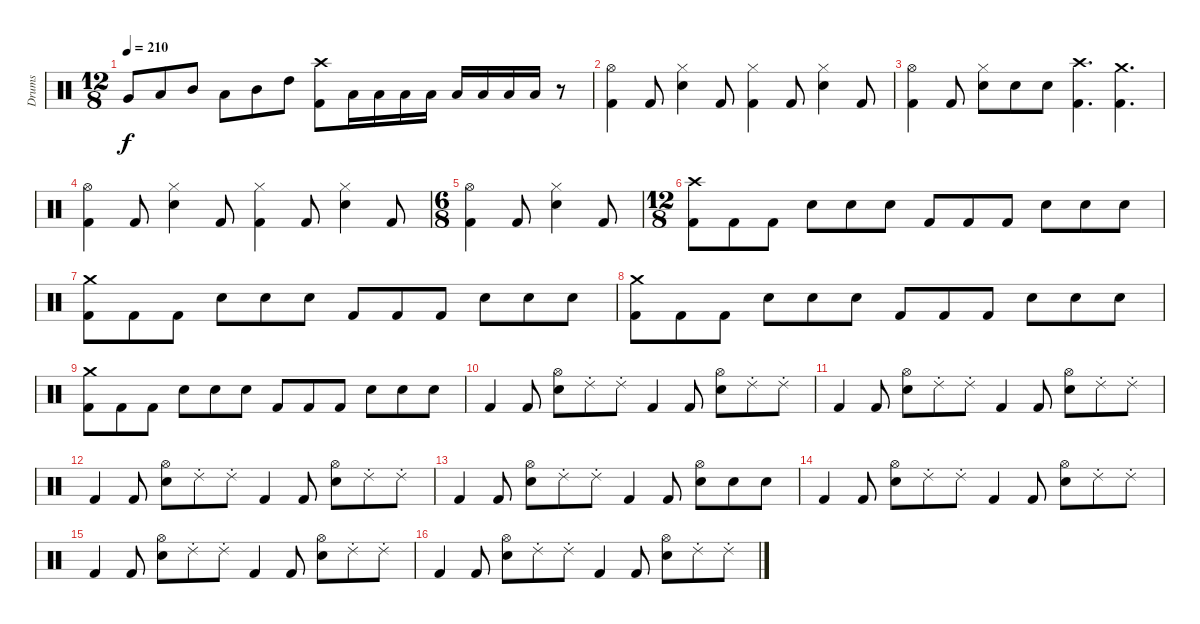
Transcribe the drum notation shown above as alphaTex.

\track ("Drums" "Drums") {instrument percussion}
\staff {score}
\articulation defaults
\ts (12 8)
\tempo 210
\clef neutral
\ks c "Very Low Tom (hit)".8{dy f} "Low Tom (hit)".8 "Mid Tom (hit)".8 "Low Tom (hit)".8 "Mid Tom (hit)".8 "High Tom (hit)".8
("Kick (hit) 2" "Crash high (hit)").8 "Low Tom (hit)".16 "Low Tom (hit)".16 "Low Tom (hit)".16 "Low Tom (hit)".16 "Low Tom (hit)".16 "Low Tom (hit)".16 "Low Tom (hit)".16 "Low Tom (hit)".16 r.8 |
("Kick (hit) 2" "Hi-Hat (open)").4 "Kick (hit) 2".8 ("Snare (hit) 2" "Hi-Hat (closed)").4 "Kick (hit) 2".8 ("Kick (hit) 2" "Hi-Hat (closed)").4 "Kick (hit) 2".8 ("Snare (hit) 2" "Hi-Hat (closed)").4 "Kick (hit) 2".8 |
("Kick (hit) 2" "Hi-Hat (open)").4 "Kick (hit) 2".8 ("Snare (hit) 2" "Hi-Hat (closed)").8 "Snare (hit) 2".8 "Snare (hit) 2".8 ("Kick (hit) 2" "Crash high (hit)").4{d} ("Kick (hit) 2" "Crash medium (hit)").4{d} |
("Kick (hit) 2" "Hi-Hat (open)").4 "Kick (hit) 2".8 ("Snare (hit) 2" "Hi-Hat (closed)").4 "Kick (hit) 2".8 ("Kick (hit) 2" "Hi-Hat (closed)").4 "Kick (hit) 2".8 ("Snare (hit) 2" "Hi-Hat (closed)").4 "Kick (hit) 2".8 |
\ts (6 8)
("Kick (hit) 2" "Hi-Hat (open)").4 "Kick (hit) 2".8 ("Snare (hit) 2" "Hi-Hat (closed)").4 "Kick (hit) 2".8 |
\ts (12 8)
("Kick (hit) 2" "Crash high (hit)").8 "Kick (hit) 2".8 "Kick (hit) 2".8 "Snare (hit) 2".8 "Snare (hit) 2".8 "Snare (hit) 2".8 "Kick (hit) 2".8 "Kick (hit) 2".8 "Kick (hit) 2".8 "Snare (hit) 2".8 "Snare (hit) 2".8 "Snare (hit) 2".8 |
("Kick (hit) 2" "Crash medium (hit)").8 "Kick (hit) 2".8 "Kick (hit) 2".8 "Snare (hit) 2".8 "Snare (hit) 2".8 "Snare (hit) 2".8 "Kick (hit) 2".8 "Kick (hit) 2".8 "Kick (hit) 2".8 "Snare (hit) 2".8 "Snare (hit) 2".8 "Snare (hit) 2".8 |
("Kick (hit) 2" "Crash medium (hit)").8 "Kick (hit) 2".8 "Kick (hit) 2".8 "Snare (hit) 2".8 "Snare (hit) 2".8 "Snare (hit) 2".8 "Kick (hit) 2".8 "Kick (hit) 2".8 "Kick (hit) 2".8 "Snare (hit) 2".8 "Snare (hit) 2".8 "Snare (hit) 2".8 |
("Kick (hit) 2" "Crash medium (hit)").8 "Kick (hit) 2".8 "Kick (hit) 2".8 "Snare (hit) 2".8 "Snare (hit) 2".8 "Snare (hit) 2".8 "Kick (hit) 2".8 "Kick (hit) 2".8 "Kick (hit) 2".8 "Snare (hit) 2".8 "Snare (hit) 2".8 "Snare (hit) 2".8 |
"Kick (hit) 2".4 "Kick (hit) 2".8 ("Snare (hit) 2" "Hi-Hat (open)").8 "Ride (choke) 2".8 "Ride (choke) 2".8 "Kick (hit) 2".4 "Kick (hit) 2".8 ("Snare (hit) 2" "Hi-Hat (open)").8 "Ride (choke) 2".8 "Ride (choke) 2".8 |
"Kick (hit) 2".4 "Kick (hit) 2".8 ("Snare (hit) 2" "Hi-Hat (open)").8 "Ride (choke) 2".8 "Ride (choke) 2".8 "Kick (hit) 2".4 "Kick (hit) 2".8 ("Snare (hit) 2" "Hi-Hat (open)").8 "Ride (choke) 2".8 "Ride (choke) 2".8 |
"Kick (hit) 2".4 "Kick (hit) 2".8 ("Snare (hit) 2" "Hi-Hat (open)").8 "Ride (choke) 2".8 "Ride (choke) 2".8 "Kick (hit) 2".4 "Kick (hit) 2".8 ("Snare (hit) 2" "Hi-Hat (open)").8 "Ride (choke) 2".8 "Ride (choke) 2".8 |
"Kick (hit) 2".4 "Kick (hit) 2".8 ("Snare (hit) 2" "Hi-Hat (open)").8 "Ride (choke) 2".8 "Ride (choke) 2".8 "Kick (hit) 2".4 "Kick (hit) 2".8 ("Snare (hit) 2" "Hi-Hat (open)").8 "Snare (hit) 2".8 "Snare (hit) 2".8 |
"Kick (hit) 2".4 "Kick (hit) 2".8 ("Snare (hit) 2" "Hi-Hat (open)").8 "Ride (choke) 2".8 "Ride (choke) 2".8 "Kick (hit) 2".4 "Kick (hit) 2".8 ("Snare (hit) 2" "Hi-Hat (open)").8 "Ride (choke) 2".8 "Ride (choke) 2".8 |
"Kick (hit) 2".4 "Kick (hit) 2".8 ("Snare (hit) 2" "Hi-Hat (open)").8 "Ride (choke) 2".8 "Ride (choke) 2".8 "Kick (hit) 2".4 "Kick (hit) 2".8 ("Snare (hit) 2" "Hi-Hat (open)").8 "Ride (choke) 2".8 "Ride (choke) 2".8 |
"Kick (hit) 2".4 "Kick (hit) 2".8 ("Snare (hit) 2" "Hi-Hat (open)").8 "Ride (choke) 2".8 "Ride (choke) 2".8 "Kick (hit) 2".4 "Kick (hit) 2".8 ("Snare (hit) 2" "Hi-Hat (open)").8 "Ride (choke) 2".8 "Ride (choke) 2".8
